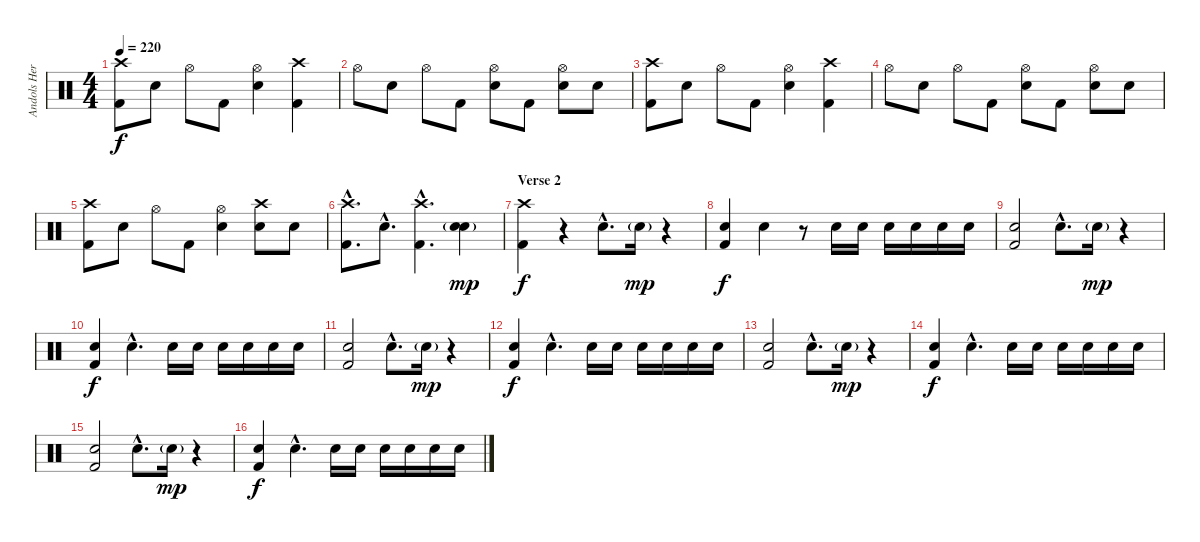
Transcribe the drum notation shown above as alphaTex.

\track ("Andols Herrick - Drums" "Andols Her") {instrument percussion}
\staff {score}
\articulation defaults
\ts (4 4)
\tempo 220
\clef neutral
\ks c
("Crash high (hit)" "Kick (hit) 2").8{dy f} "Snare (hit) 2".8 "Hi-Hat (open)".8 "Kick (hit) 2".8 ("Hi-Hat (open)" "Snare (hit) 2").4 ("Crash high (hit)" "Kick (hit) 2").4 |
"Hi-Hat (open)".8 "Snare (hit) 2".8 "Hi-Hat (open)".8 "Kick (hit) 2".8 ("Hi-Hat (open)" "Snare (hit) 2").8 "Kick (hit) 2".8 ("Hi-Hat (open)" "Snare (hit) 2").8 "Snare (hit) 2".8 |
("Crash high (hit)" "Kick (hit) 2").8 "Snare (hit) 2".8 "Hi-Hat (open)".8 "Kick (hit) 2".8 ("Hi-Hat (open)" "Snare (hit) 2").4 ("Crash high (hit)" "Kick (hit) 2").4 |
"Hi-Hat (open)".8 "Snare (hit) 2".8 "Hi-Hat (open)".8 "Kick (hit) 2".8 ("Hi-Hat (open)" "Snare (hit) 2").8 "Kick (hit) 2".8 ("Hi-Hat (open)" "Snare (hit) 2").8 "Snare (hit) 2".8 |
("Crash high (hit)" "Kick (hit) 2").8 "Snare (hit) 2".8 "Hi-Hat (open)".8 "Kick (hit) 2".8 ("Hi-Hat (open)" "Snare (hit) 2").4 ("Crash high (hit)" "Snare (hit) 2").8 "Snare (hit) 2".8 |
("Crash high (hit)"{hac} "Kick (hit) 2"{hac}).8{d} "Snare (hit) 2"{hac}.8{d} ("Crash high (hit)"{hac} "Kick (hit) 2"{hac}).4{d} ("Snare (hit) 2"{g} "Snare (hit) 2").4{dy mp} |
\section ("" "Verse 2")
("Crash high (hit)" "Kick (hit) 2").4{dy f} r.4 "Snare (hit) 2"{hac}.8{d} "Snare (hit) 2"{g}.16{dy mp} r.4 |
("Snare (hit) 2" "Kick (hit) 2").4{dy f} "Snare (hit) 2".4 r.8 "Snare (hit) 2".16 "Snare (hit) 2".16 "Snare (hit) 2".16 "Snare (hit) 2".16 "Snare (hit) 2".16 "Snare (hit) 2".16 |
("Snare (hit) 2" "Kick (hit) 2").2 "Snare (hit) 2"{hac}.8{d} "Snare (hit) 2"{g}.16{dy mp} r.4 |
("Snare (hit) 2" "Kick (hit) 2").4{dy f} "Snare (hit) 2"{hac}.4{d} "Snare (hit) 2".16 "Snare (hit) 2".16 "Snare (hit) 2".16 "Snare (hit) 2".16 "Snare (hit) 2".16 "Snare (hit) 2".16 |
("Snare (hit) 2" "Kick (hit) 2").2 "Snare (hit) 2"{hac}.8{d} "Snare (hit) 2"{g}.16{dy mp} r.4 |
("Snare (hit) 2" "Kick (hit) 2").4{dy f} "Snare (hit) 2"{hac}.4{d} "Snare (hit) 2".16 "Snare (hit) 2".16 "Snare (hit) 2".16 "Snare (hit) 2".16 "Snare (hit) 2".16 "Snare (hit) 2".16 |
("Snare (hit) 2" "Kick (hit) 2").2 "Snare (hit) 2"{hac}.8{d} "Snare (hit) 2"{g}.16{dy mp} r.4 |
("Snare (hit) 2" "Kick (hit) 2").4{dy f} "Snare (hit) 2"{hac}.4{d} "Snare (hit) 2".16 "Snare (hit) 2".16 "Snare (hit) 2".16 "Snare (hit) 2".16 "Snare (hit) 2".16 "Snare (hit) 2".16 |
("Snare (hit) 2" "Kick (hit) 2").2 "Snare (hit) 2"{hac}.8{d} "Snare (hit) 2"{g}.16{dy mp} r.4 |
("Snare (hit) 2" "Kick (hit) 2").4{dy f} "Snare (hit) 2"{hac}.4{d} "Snare (hit) 2".16 "Snare (hit) 2".16 "Snare (hit) 2".16 "Snare (hit) 2".16 "Snare (hit) 2".16 "Snare (hit) 2".16
